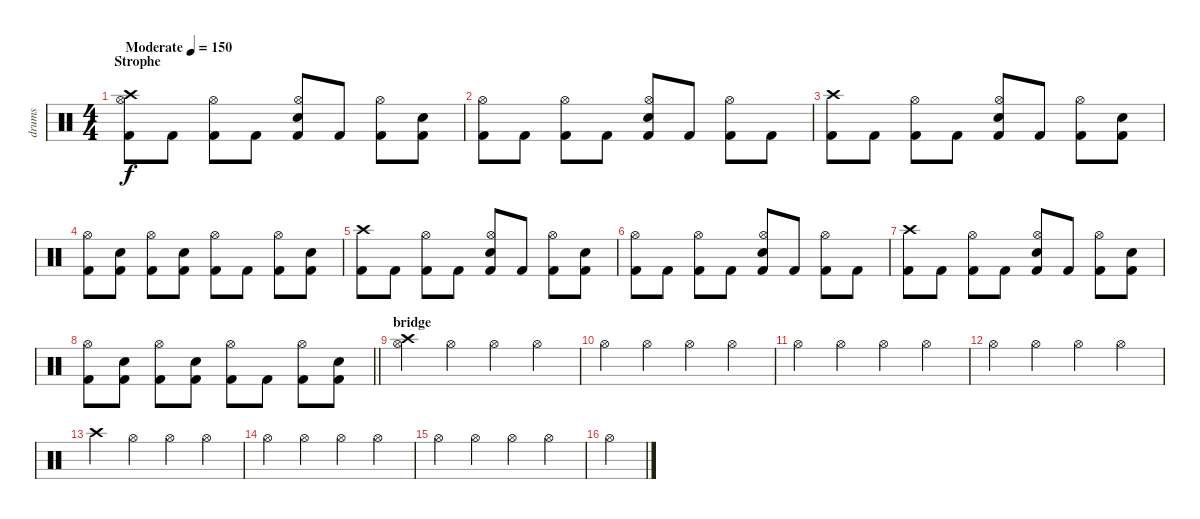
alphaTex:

\track ("drums" "drums") {instrument percussion}
\staff {score}
\articulation defaults
\ts (4 4)
\section ("" "Strophe")
\tempo (150 "Moderate")
\clef neutral
\ks c
("Kick (hit) 2" "Crash high (hit)" "Hi-Hat (open)").8{dy f} "Kick (hit) 2".8 ("Kick (hit) 2" "Hi-Hat (open)").8 "Kick (hit) 2".8 ("Kick (hit) 2" "Snare (hit) 2" "Hi-Hat (open)").8 "Kick (hit) 2".8 ("Kick (hit) 2" "Hi-Hat (open)").8 ("Kick (hit) 2" "Snare (hit) 2").8 |
("Kick (hit) 2" "Hi-Hat (open)").8 "Kick (hit) 2".8 ("Kick (hit) 2" "Hi-Hat (open)").8 "Kick (hit) 2".8 ("Kick (hit) 2" "Snare (hit) 2" "Hi-Hat (open)").8 "Kick (hit) 2".8 ("Kick (hit) 2" "Hi-Hat (open)").8 "Kick (hit) 2".8 |
("Kick (hit) 2" "Crash high (hit)").8 "Kick (hit) 2".8 ("Kick (hit) 2" "Hi-Hat (open)").8 "Kick (hit) 2".8 ("Kick (hit) 2" "Snare (hit) 2" "Hi-Hat (open)").8 "Kick (hit) 2".8 ("Kick (hit) 2" "Hi-Hat (open)").8 ("Kick (hit) 2" "Snare (hit) 2").8 |
("Kick (hit) 2" "Hi-Hat (open)").8 ("Kick (hit) 2" "Snare (hit) 2").8 ("Kick (hit) 2" "Hi-Hat (open)").8 ("Kick (hit) 2" "Snare (hit) 2").8 ("Kick (hit) 2" "Hi-Hat (open)").8 "Kick (hit) 2".8 ("Kick (hit) 2" "Hi-Hat (open)").8 ("Kick (hit) 2" "Snare (hit) 2").8 |
("Kick (hit) 2" "Crash high (hit)").8 "Kick (hit) 2".8 ("Kick (hit) 2" "Hi-Hat (open)").8 "Kick (hit) 2".8 ("Kick (hit) 2" "Snare (hit) 2" "Hi-Hat (open)").8 "Kick (hit) 2".8 ("Kick (hit) 2" "Hi-Hat (open)").8 ("Kick (hit) 2" "Snare (hit) 2").8 |
("Kick (hit) 2" "Hi-Hat (open)").8 "Kick (hit) 2".8 ("Kick (hit) 2" "Hi-Hat (open)").8 "Kick (hit) 2".8 ("Kick (hit) 2" "Snare (hit) 2" "Hi-Hat (open)").8 "Kick (hit) 2".8 ("Kick (hit) 2" "Hi-Hat (open)").8 "Kick (hit) 2".8 |
("Kick (hit) 2" "Crash high (hit)").8 "Kick (hit) 2".8 ("Kick (hit) 2" "Hi-Hat (open)").8 "Kick (hit) 2".8 ("Kick (hit) 2" "Snare (hit) 2" "Hi-Hat (open)").8 "Kick (hit) 2".8 ("Kick (hit) 2" "Hi-Hat (open)").8 ("Kick (hit) 2" "Snare (hit) 2").8 |
\barLineRight lightlight
("Kick (hit) 2" "Hi-Hat (open)").8 ("Kick (hit) 2" "Snare (hit) 2").8 ("Kick (hit) 2" "Hi-Hat (open)").8 ("Kick (hit) 2" "Snare (hit) 2").8 ("Kick (hit) 2" "Hi-Hat (open)").8 "Kick (hit) 2".8 ("Kick (hit) 2" "Hi-Hat (open)").8 ("Kick (hit) 2" "Snare (hit) 2").8 |
\section ("" "bridge")
("Crash high (hit)" "Hi-Hat (open)").4 "Hi-Hat (open)".4 "Hi-Hat (open)".4 "Hi-Hat (open)".4 |
"Hi-Hat (open)".4 "Hi-Hat (open)".4 "Hi-Hat (open)".4 "Hi-Hat (open)".4 |
"Hi-Hat (open)".4 "Hi-Hat (open)".4 "Hi-Hat (open)".4 "Hi-Hat (open)".4 |
"Hi-Hat (open)".4 "Hi-Hat (open)".4 "Hi-Hat (open)".4 "Hi-Hat (open)".4 |
"Crash high (hit)".4 "Hi-Hat (open)".4 "Hi-Hat (open)".4 "Hi-Hat (open)".4 |
"Hi-Hat (open)".4 "Hi-Hat (open)".4 "Hi-Hat (open)".4 "Hi-Hat (open)".4 |
"Hi-Hat (open)".4 "Hi-Hat (open)".4 "Hi-Hat (open)".4 "Hi-Hat (open)".4 |
"Hi-Hat (open)".4
